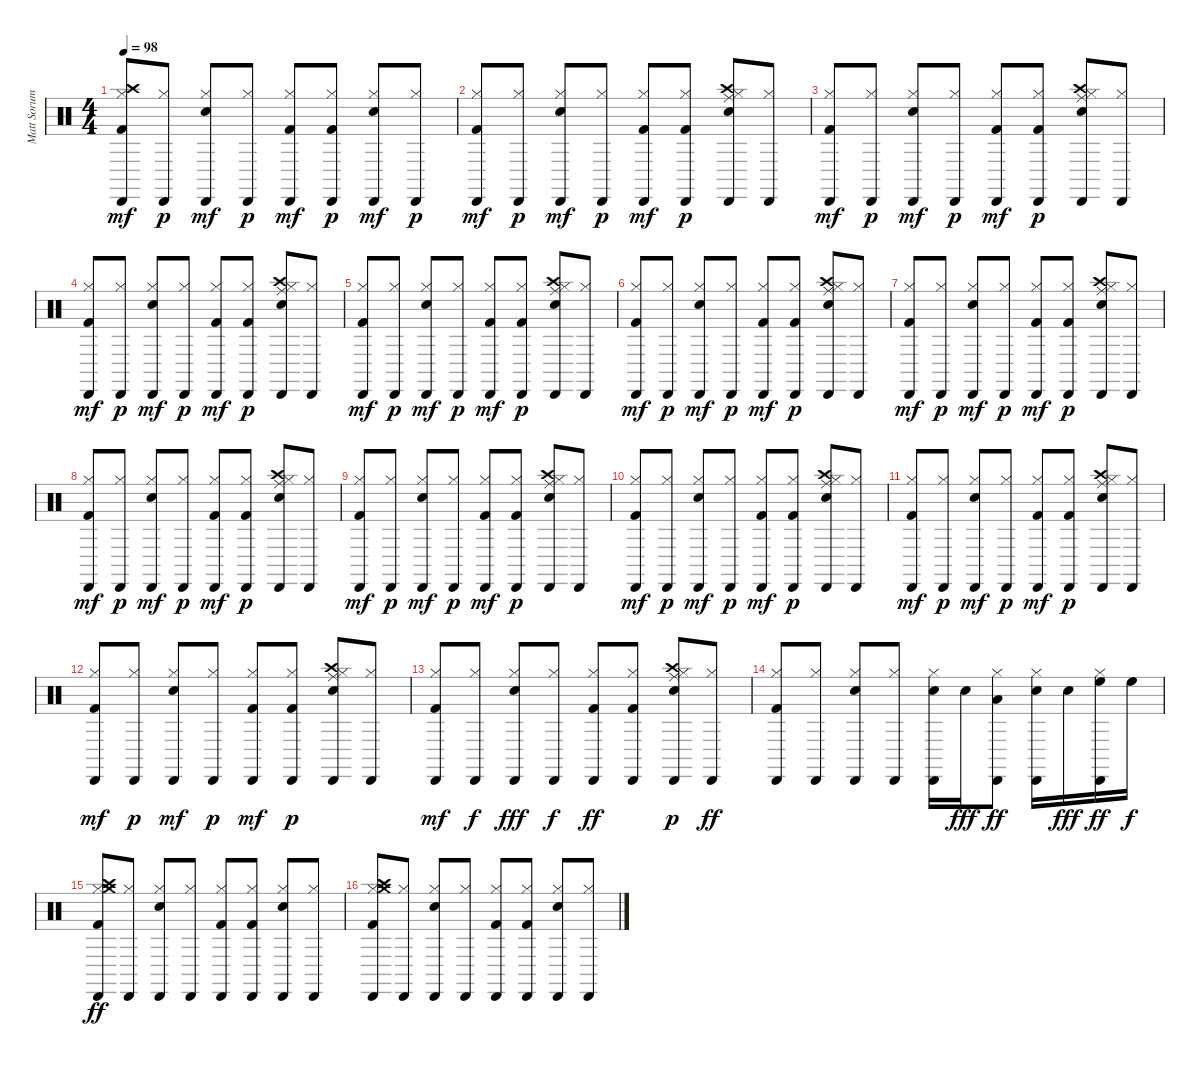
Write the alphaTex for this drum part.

\track ("Matt Sorum" "Matt Sorum") {instrument percussion}
\staff {score}
\articulation defaults
\ts (4 4)
\tempo 98
\clef neutral
\ks c
("Kick (hit) 2" "Hi-Hat (closed)" "Cabasa (hit)" "Crash high (hit)").8{dy mf} ("Hi-Hat (closed)" "Cabasa (hit)").8{dy p} ("Snare (hit) 2" "Hi-Hat (closed)" "Cabasa (hit)").8{dy mf} ("Hi-Hat (closed)" "Cabasa (hit)").8{dy p} ("Kick (hit) 2" "Hi-Hat (closed)" "Cabasa (hit)").8{dy mf} ("Kick (hit) 2" "Hi-Hat (closed)" "Cabasa (hit)").8{dy p} ("Snare (hit) 2" "Hi-Hat (closed)" "Cabasa (hit)").8{dy mf} ("Hi-Hat (closed)" "Cabasa (hit)").8{dy p} |
("Kick (hit) 2" "Hi-Hat (closed)" "Cabasa (hit)").8{dy mf} ("Hi-Hat (closed)" "Cabasa (hit)").8{dy p} ("Snare (hit) 2" "Hi-Hat (closed)" "Cabasa (hit)").8{dy mf} ("Hi-Hat (closed)" "Cabasa (hit)").8{dy p} ("Kick (hit) 2" "Hi-Hat (closed)" "Cabasa (hit)").8{dy mf} ("Kick (hit) 2" "Hi-Hat (closed)" "Cabasa (hit)").8{dy p} ("Snare (hit) 2" "Hi-Hat (closed)" "Cabasa (hit)" "Crash high (hit)" "Ride (middle)").8 ("Hi-Hat (closed)" "Cabasa (hit)").8 |
("Kick (hit) 2" "Hi-Hat (closed)" "Cabasa (hit)").8{dy mf} ("Hi-Hat (closed)" "Cabasa (hit)").8{dy p} ("Snare (hit) 2" "Hi-Hat (closed)" "Cabasa (hit)").8{dy mf} ("Hi-Hat (closed)" "Cabasa (hit)").8{dy p} ("Kick (hit) 2" "Hi-Hat (closed)" "Cabasa (hit)").8{dy mf} ("Kick (hit) 2" "Hi-Hat (closed)" "Cabasa (hit)").8{dy p} ("Snare (hit) 2" "Hi-Hat (closed)" "Cabasa (hit)" "Crash high (hit)" "Ride (middle)").8 ("Hi-Hat (closed)" "Cabasa (hit)").8 |
("Kick (hit) 2" "Hi-Hat (closed)" "Cabasa (hit)").8{dy mf} ("Hi-Hat (closed)" "Cabasa (hit)").8{dy p} ("Snare (hit) 2" "Hi-Hat (closed)" "Cabasa (hit)").8{dy mf} ("Hi-Hat (closed)" "Cabasa (hit)").8{dy p} ("Kick (hit) 2" "Hi-Hat (closed)" "Cabasa (hit)").8{dy mf} ("Kick (hit) 2" "Hi-Hat (closed)" "Cabasa (hit)").8{dy p} ("Snare (hit) 2" "Hi-Hat (closed)" "Cabasa (hit)" "Crash high (hit)" "Ride (middle)").8 ("Hi-Hat (closed)" "Cabasa (hit)").8 |
("Kick (hit) 2" "Hi-Hat (closed)" "Cabasa (hit)").8{dy mf} ("Hi-Hat (closed)" "Cabasa (hit)").8{dy p} ("Snare (hit) 2" "Hi-Hat (closed)" "Cabasa (hit)").8{dy mf} ("Hi-Hat (closed)" "Cabasa (hit)").8{dy p} ("Kick (hit) 2" "Hi-Hat (closed)" "Cabasa (hit)").8{dy mf} ("Kick (hit) 2" "Hi-Hat (closed)" "Cabasa (hit)").8{dy p} ("Snare (hit) 2" "Hi-Hat (closed)" "Cabasa (hit)" "Crash high (hit)" "Ride (middle)").8 ("Hi-Hat (closed)" "Cabasa (hit)").8 |
("Kick (hit) 2" "Hi-Hat (closed)" "Cabasa (hit)").8{dy mf} ("Hi-Hat (closed)" "Cabasa (hit)").8{dy p} ("Snare (hit) 2" "Hi-Hat (closed)" "Cabasa (hit)").8{dy mf} ("Hi-Hat (closed)" "Cabasa (hit)").8{dy p} ("Kick (hit) 2" "Hi-Hat (closed)" "Cabasa (hit)").8{dy mf} ("Kick (hit) 2" "Hi-Hat (closed)" "Cabasa (hit)").8{dy p} ("Snare (hit) 2" "Hi-Hat (closed)" "Cabasa (hit)" "Crash high (hit)" "Ride (middle)").8 ("Hi-Hat (closed)" "Cabasa (hit)").8 |
("Kick (hit) 2" "Hi-Hat (closed)" "Cabasa (hit)").8{dy mf} ("Hi-Hat (closed)" "Cabasa (hit)").8{dy p} ("Snare (hit) 2" "Hi-Hat (closed)" "Cabasa (hit)").8{dy mf} ("Hi-Hat (closed)" "Cabasa (hit)").8{dy p} ("Kick (hit) 2" "Hi-Hat (closed)" "Cabasa (hit)").8{dy mf} ("Kick (hit) 2" "Hi-Hat (closed)" "Cabasa (hit)").8{dy p} ("Snare (hit) 2" "Hi-Hat (closed)" "Cabasa (hit)" "Crash high (hit)" "Ride (middle)").8 ("Hi-Hat (closed)" "Cabasa (hit)").8 |
("Kick (hit) 2" "Hi-Hat (closed)" "Cabasa (hit)").8{dy mf} ("Hi-Hat (closed)" "Cabasa (hit)").8{dy p} ("Snare (hit) 2" "Hi-Hat (closed)" "Cabasa (hit)").8{dy mf} ("Hi-Hat (closed)" "Cabasa (hit)").8{dy p} ("Kick (hit) 2" "Hi-Hat (closed)" "Cabasa (hit)").8{dy mf} ("Kick (hit) 2" "Hi-Hat (closed)" "Cabasa (hit)").8{dy p} ("Snare (hit) 2" "Hi-Hat (closed)" "Cabasa (hit)" "Crash high (hit)" "Ride (middle)").8 ("Hi-Hat (closed)" "Cabasa (hit)").8 |
("Kick (hit) 2" "Hi-Hat (closed)" "Cabasa (hit)").8{dy mf} ("Hi-Hat (closed)" "Cabasa (hit)").8{dy p} ("Snare (hit) 2" "Hi-Hat (closed)" "Cabasa (hit)").8{dy mf} ("Hi-Hat (closed)" "Cabasa (hit)").8{dy p} ("Kick (hit) 2" "Hi-Hat (closed)" "Cabasa (hit)").8{dy mf} ("Kick (hit) 2" "Hi-Hat (closed)" "Cabasa (hit)").8{dy p} ("Snare (hit) 2" "Hi-Hat (closed)" "Cabasa (hit)" "Crash high (hit)" "Ride (middle)").8 ("Hi-Hat (closed)" "Cabasa (hit)").8 |
("Kick (hit) 2" "Hi-Hat (closed)" "Cabasa (hit)").8{dy mf} ("Hi-Hat (closed)" "Cabasa (hit)").8{dy p} ("Snare (hit) 2" "Hi-Hat (closed)" "Cabasa (hit)").8{dy mf} ("Hi-Hat (closed)" "Cabasa (hit)").8{dy p} ("Kick (hit) 2" "Hi-Hat (closed)" "Cabasa (hit)").8{dy mf} ("Kick (hit) 2" "Hi-Hat (closed)" "Cabasa (hit)").8{dy p} ("Snare (hit) 2" "Hi-Hat (closed)" "Cabasa (hit)" "Crash high (hit)" "Ride (middle)").8 ("Hi-Hat (closed)" "Cabasa (hit)").8 |
("Kick (hit) 2" "Hi-Hat (closed)" "Cabasa (hit)").8{dy mf} ("Hi-Hat (closed)" "Cabasa (hit)").8{dy p} ("Snare (hit) 2" "Hi-Hat (closed)" "Cabasa (hit)").8{dy mf} ("Hi-Hat (closed)" "Cabasa (hit)").8{dy p} ("Kick (hit) 2" "Hi-Hat (closed)" "Cabasa (hit)").8{dy mf} ("Kick (hit) 2" "Hi-Hat (closed)" "Cabasa (hit)").8{dy p} ("Snare (hit) 2" "Hi-Hat (closed)" "Cabasa (hit)" "Crash high (hit)" "Ride (middle)").8 ("Hi-Hat (closed)" "Cabasa (hit)").8 |
("Kick (hit) 2" "Hi-Hat (closed)" "Cabasa (hit)").8{dy mf} ("Hi-Hat (closed)" "Cabasa (hit)").8{dy p} ("Snare (hit) 2" "Hi-Hat (closed)" "Cabasa (hit)").8{dy mf} ("Hi-Hat (closed)" "Cabasa (hit)").8{dy p} ("Kick (hit) 2" "Hi-Hat (closed)" "Cabasa (hit)").8{dy mf} ("Kick (hit) 2" "Hi-Hat (closed)" "Cabasa (hit)").8{dy p} ("Snare (hit) 2" "Hi-Hat (closed)" "Cabasa (hit)" "Crash high (hit)" "Ride (middle)").8 ("Hi-Hat (closed)" "Cabasa (hit)").8 |
("Kick (hit) 2" "Hi-Hat (closed)" "Cabasa (hit)").8{dy mf} ("Hi-Hat (closed)" "Cabasa (hit)").8{dy f} ("Snare (hit) 2" "Hi-Hat (closed)" "Cabasa (hit)").8{dy fff} ("Hi-Hat (closed)" "Cabasa (hit)").8{dy f} ("Kick (hit) 2" "Hi-Hat (closed)" "Cabasa (hit)").8{dy ff} ("Kick (hit) 2" "Hi-Hat (closed)" "Cabasa (hit)").8 ("Snare (hit) 2" "Hi-Hat (closed)" "Cabasa (hit)" "Crash high (hit)" "Ride (middle)").8{dy p} ("Hi-Hat (closed)" "Cabasa (hit)").8{dy ff} |
("Kick (hit) 2" "Hi-Hat (closed)" "Cabasa (hit)").8 ("Hi-Hat (closed)" "Cabasa (hit)").8 ("Snare (hit) 2" "Hi-Hat (closed)" "Cabasa (hit)").8 ("Hi-Hat (closed)" "Cabasa (hit)").8 ("Snare (hit) 2" "Hi-Hat (closed)" "Cabasa (hit)").16{volume 14} "Snare (hit) 2".16{dy fff} ("Low Tom (hit)" "Hi-Hat (closed)" "Cabasa (hit)").8{dy ff} ("Snare (hit) 2" "Hi-Hat (closed)" "Cabasa (hit)").16{volume 16} "Snare (hit) 2".16{dy fff} ("High Floor Tom (hit)" "Hi-Hat (closed)" "Cabasa (hit)").16{dy ff} "High Floor Tom (hit)".16{dy f} |
("Kick (hit) 2" "Hi-Hat (closed)" "Cabasa (hit)" "Crash medium (hit)" "Crash high (hit)").8{dy ff volume 16} ("Hi-Hat (closed)" "Cabasa (hit)").8 ("Snare (hit) 2" "Hi-Hat (closed)" "Cabasa (hit)").8 ("Hi-Hat (closed)" "Cabasa (hit)").8 ("Kick (hit) 2" "Hi-Hat (closed)" "Cabasa (hit)").8 ("Kick (hit) 2" "Hi-Hat (closed)" "Cabasa (hit)").8 ("Snare (hit) 2" "Hi-Hat (closed)" "Cabasa (hit)").8 ("Hi-Hat (closed)" "Cabasa (hit)").8 |
("Kick (hit) 2" "Hi-Hat (closed)" "Cabasa (hit)" "Crash medium (hit)" "Crash high (hit)").8 ("Hi-Hat (closed)" "Cabasa (hit)").8 ("Snare (hit) 2" "Hi-Hat (closed)" "Cabasa (hit)").8 ("Hi-Hat (closed)" "Cabasa (hit)").8 ("Kick (hit) 2" "Hi-Hat (closed)" "Cabasa (hit)").8 ("Kick (hit) 2" "Hi-Hat (closed)" "Cabasa (hit)").8 ("Snare (hit) 2" "Hi-Hat (closed)" "Cabasa (hit)").8 ("Hi-Hat (closed)" "Cabasa (hit)").8
